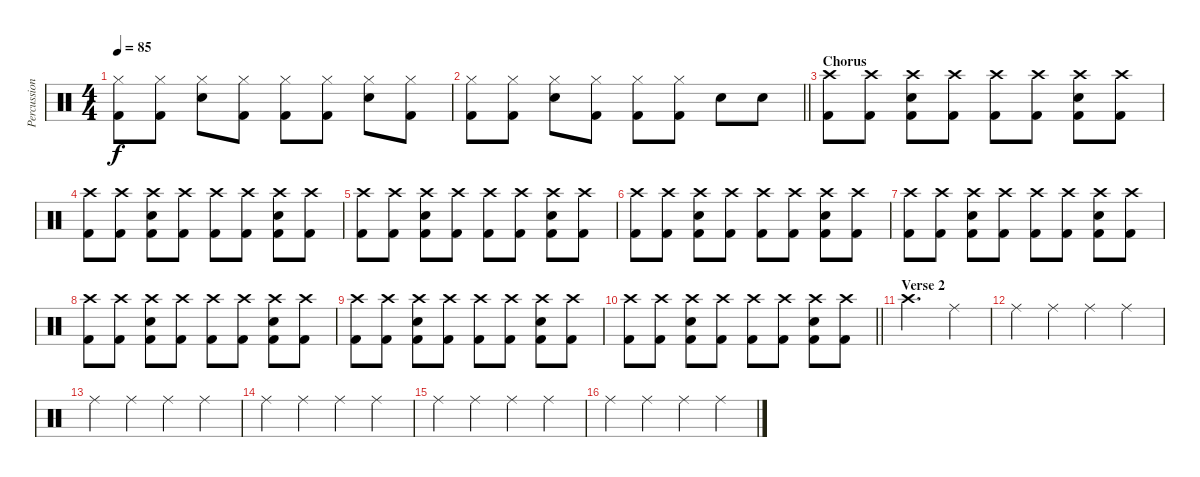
\track ("Percussion" "Percussion") {instrument percussion}
\staff {score}
\articulation defaults
\ts (4 4)
\tempo 85
\clef neutral
\ks c
("Hi-Hat (closed)" "Kick (hit) 2").8{dy f} ("Hi-Hat (closed)" "Kick (hit) 2").8 ("Hi-Hat (closed)" "Snare (hit) 2").8 ("Hi-Hat (closed)" "Kick (hit) 2").8 ("Hi-Hat (closed)" "Kick (hit) 2").8 ("Hi-Hat (closed)" "Kick (hit) 2").8 ("Hi-Hat (closed)" "Snare (hit) 2").8 ("Hi-Hat (closed)" "Kick (hit) 2").8 |
\barLineRight lightlight
("Hi-Hat (closed)" "Kick (hit) 2").8 ("Hi-Hat (closed)" "Kick (hit) 2").8 ("Hi-Hat (closed)" "Snare (hit) 2").8 ("Hi-Hat (closed)" "Kick (hit) 2").8 ("Hi-Hat (closed)" "Kick (hit) 2").8 ("Hi-Hat (closed)" "Kick (hit) 2").8 "Snare (hit) 2".8 "Snare (hit) 2".8 |
\section ("" "Chorus")
("Crash high (hit)" "Kick (hit) 2").8 ("Crash high (hit)" "Kick (hit) 2").8 ("Crash high (hit)" "Snare (hit) 2" "Kick (hit) 2").8 ("Crash high (hit)" "Kick (hit) 2").8 ("Crash high (hit)" "Kick (hit) 2").8 ("Crash high (hit)" "Kick (hit) 2").8 ("Crash high (hit)" "Snare (hit) 2" "Kick (hit) 2").8 ("Crash high (hit)" "Kick (hit) 2").8 |
("Crash high (hit)" "Kick (hit) 2").8 ("Crash high (hit)" "Kick (hit) 2").8 ("Crash high (hit)" "Snare (hit) 2" "Kick (hit) 2").8 ("Crash high (hit)" "Kick (hit) 2").8 ("Crash high (hit)" "Kick (hit) 2").8 ("Crash high (hit)" "Kick (hit) 2").8 ("Crash high (hit)" "Snare (hit) 2" "Kick (hit) 2").8 ("Crash high (hit)" "Kick (hit) 2").8 |
("Crash high (hit)" "Kick (hit) 2").8 ("Crash high (hit)" "Kick (hit) 2").8 ("Crash high (hit)" "Snare (hit) 2" "Kick (hit) 2").8 ("Crash high (hit)" "Kick (hit) 2").8 ("Crash high (hit)" "Kick (hit) 2").8 ("Crash high (hit)" "Kick (hit) 2").8 ("Crash high (hit)" "Snare (hit) 2" "Kick (hit) 2").8 ("Crash high (hit)" "Kick (hit) 2").8 |
("Crash high (hit)" "Kick (hit) 2").8 ("Crash high (hit)" "Kick (hit) 2").8 ("Crash high (hit)" "Snare (hit) 2" "Kick (hit) 2").8 ("Crash high (hit)" "Kick (hit) 2").8 ("Crash high (hit)" "Kick (hit) 2").8 ("Crash high (hit)" "Kick (hit) 2").8 ("Crash high (hit)" "Snare (hit) 2" "Kick (hit) 2").8 ("Crash high (hit)" "Kick (hit) 2").8 |
("Crash high (hit)" "Kick (hit) 2").8 ("Crash high (hit)" "Kick (hit) 2").8 ("Crash high (hit)" "Snare (hit) 2" "Kick (hit) 2").8 ("Crash high (hit)" "Kick (hit) 2").8 ("Crash high (hit)" "Kick (hit) 2").8 ("Crash high (hit)" "Kick (hit) 2").8 ("Crash high (hit)" "Snare (hit) 2" "Kick (hit) 2").8 ("Crash high (hit)" "Kick (hit) 2").8 |
("Crash high (hit)" "Kick (hit) 2").8 ("Crash high (hit)" "Kick (hit) 2").8 ("Crash high (hit)" "Snare (hit) 2" "Kick (hit) 2").8 ("Crash high (hit)" "Kick (hit) 2").8 ("Crash high (hit)" "Kick (hit) 2").8 ("Crash high (hit)" "Kick (hit) 2").8 ("Crash high (hit)" "Snare (hit) 2" "Kick (hit) 2").8 ("Crash high (hit)" "Kick (hit) 2").8 |
("Crash high (hit)" "Kick (hit) 2").8 ("Crash high (hit)" "Kick (hit) 2").8 ("Crash high (hit)" "Snare (hit) 2" "Kick (hit) 2").8 ("Crash high (hit)" "Kick (hit) 2").8 ("Crash high (hit)" "Kick (hit) 2").8 ("Crash high (hit)" "Kick (hit) 2").8 ("Crash high (hit)" "Snare (hit) 2" "Kick (hit) 2").8 ("Crash high (hit)" "Kick (hit) 2").8 |
\barLineRight lightlight
("Crash high (hit)" "Kick (hit) 2").8 ("Crash high (hit)" "Kick (hit) 2").8 ("Crash high (hit)" "Snare (hit) 2" "Kick (hit) 2").8 ("Crash high (hit)" "Kick (hit) 2").8 ("Crash high (hit)" "Kick (hit) 2").8 ("Crash high (hit)" "Kick (hit) 2").8 ("Crash high (hit)" "Snare (hit) 2" "Kick (hit) 2").8 ("Crash high (hit)" "Kick (hit) 2").8 |
\section ("" "Verse 2")
"Crash high (hit)".2{d} "Ride (middle)".4 |
"Ride (middle)".4 "Ride (middle)".4 "Ride (middle)".4 "Ride (middle)".4 |
"Ride (middle)".4 "Ride (middle)".4 "Ride (middle)".4 "Ride (middle)".4 |
"Ride (middle)".4 "Ride (middle)".4 "Ride (middle)".4 "Ride (middle)".4 |
"Ride (middle)".4 "Ride (middle)".4 "Ride (middle)".4 "Ride (middle)".4 |
"Ride (middle)".4 "Ride (middle)".4 "Ride (middle)".4 "Ride (middle)".4
